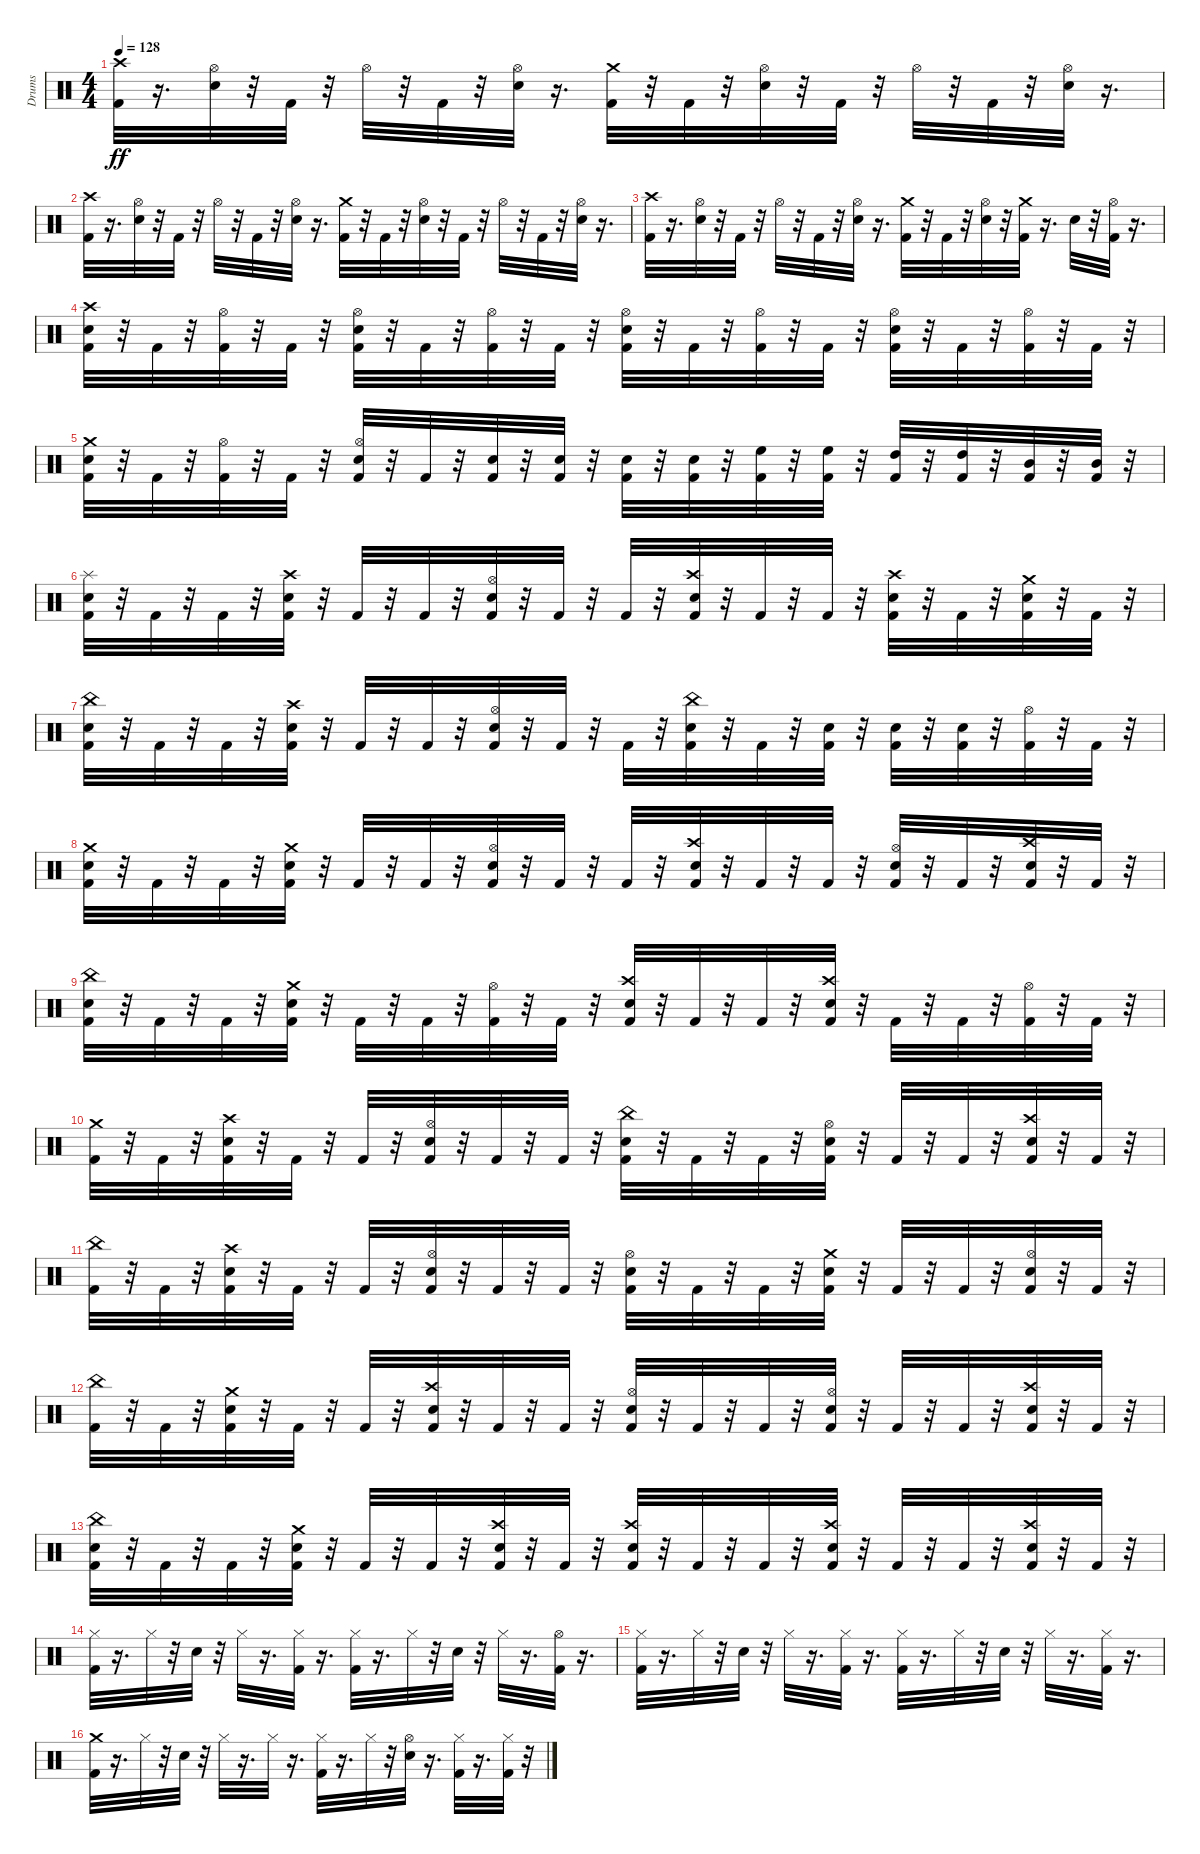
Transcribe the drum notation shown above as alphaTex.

\track ("Drums" "Drums") {instrument percussion}
\staff {score}
\articulation defaults
\ts (4 4)
\tempo 128
\clef neutral
\ks c
("Kick (hit) 2" "Crash high (hit)").32{dy ff} r.16{d} ("Hi-Hat (open)" "Snare (hit) 2").32 r.32 "Kick (hit) 2".32 r.32 "Hi-Hat (open)".32 r.32 "Kick (hit) 2".32 r.32 ("Hi-Hat (open)" "Snare (hit) 2").32 r.16{d} ("Crash medium (hit)" "Kick (hit) 2").32 r.32 "Kick (hit) 2".32 r.32 ("Hi-Hat (open)" "Snare (hit) 2").32 r.32 "Kick (hit) 2".32 r.32 "Hi-Hat (open)".32 r.32 "Kick (hit) 2".32 r.32 ("Hi-Hat (open)" "Snare (hit) 2").32 r.16{d} |
("Kick (hit) 2" "Crash high (hit)").32 r.16{d} ("Hi-Hat (open)" "Snare (hit) 2").32 r.32 "Kick (hit) 2".32 r.32 "Hi-Hat (open)".32 r.32 "Kick (hit) 2".32 r.32 ("Hi-Hat (open)" "Snare (hit) 2").32 r.16{d} ("Crash medium (hit)" "Kick (hit) 2").32 r.32 "Kick (hit) 2".32 r.32 ("Hi-Hat (open)" "Snare (hit) 2").32 r.32 "Kick (hit) 2".32 r.32 "Hi-Hat (open)".32 r.32 "Kick (hit) 2".32 r.32 ("Hi-Hat (open)" "Snare (hit) 2").32 r.16{d} |
("Kick (hit) 2" "Crash high (hit)").32 r.16{d} ("Hi-Hat (open)" "Snare (hit) 2").32 r.32 "Kick (hit) 2".32 r.32 "Hi-Hat (open)".32 r.32 "Kick (hit) 2".32 r.32 ("Hi-Hat (open)" "Snare (hit) 2").32 r.16{d} ("Crash medium (hit)" "Kick (hit) 2").32 r.32 "Kick (hit) 2".32 r.32 ("Hi-Hat (open)" "Snare (hit) 2").32 r.32 ("Kick (hit) 2" "Crash medium (hit)").32 r.16{d} "Snare (hit) 2".32 r.32 ("Hi-Hat (open)" "Kick (hit) 2").32 r.16{d} |
("Kick (hit) 2" "Crash high (hit)" "Snare (hit) 2").32 r.32 "Kick (hit) 2".32 r.32 ("Kick (hit) 2" "Hi-Hat (open)").32 r.32 "Kick (hit) 2".32 r.32 ("Kick (hit) 2" "Hi-Hat (open)" "Snare (hit) 2").32 r.32 "Kick (hit) 2".32 r.32 ("Kick (hit) 2" "Hi-Hat (open)").32 r.32 "Kick (hit) 2".32 r.32 ("Kick (hit) 2" "Hi-Hat (open)" "Snare (hit) 2").32 r.32 "Kick (hit) 2".32 r.32 ("Kick (hit) 2" "Hi-Hat (open)").32 r.32 "Kick (hit) 2".32 r.32 ("Snare (hit) 2" "Kick (hit) 2" "Hi-Hat (open)").32 r.32 "Kick (hit) 2".32 r.32 ("Kick (hit) 2" "Hi-Hat (open)").32 r.32 "Kick (hit) 2".32 r.32 |
("Kick (hit) 2" "Crash medium (hit)" "Snare (hit) 2").32 r.32 "Kick (hit) 2".32 r.32 ("Kick (hit) 2" "Hi-Hat (open)").32 r.32 "Kick (hit) 2".32 r.32 ("Kick (hit) 2" "Hi-Hat (open)" "Snare (hit) 2").32 r.32 "Kick (hit) 2".32 r.32 ("Kick (hit) 2" "Snare (hit) 2").32 r.32 ("Snare (hit) 2" "Kick (hit) 2").32 r.32 ("Kick (hit) 2" "Snare (hit) 2").32 r.32 ("Kick (hit) 2" "Snare (hit) 2").32 r.32 ("Kick (hit) 2" "High Floor Tom (hit)").32 r.32 ("Kick (hit) 2" "High Floor Tom (hit)").32 r.32 ("Kick (hit) 2" "High Tom (hit)").32 r.32 ("Kick (hit) 2" "High Tom (hit)").32 r.32 ("Kick (hit) 2" "Mid Tom (hit)").32 r.32 ("Kick (hit) 2" "Mid Tom (hit)").32 r.32 |
("Snare (hit) 2" "Splash (hit)" "Kick (hit) 2").32 r.32 "Kick (hit) 2".32 r.32 "Kick (hit) 2".32 r.32 ("Kick (hit) 2" "Snare (hit) 2" "Crash high (hit)").32 r.32 "Kick (hit) 2".32 r.32 "Kick (hit) 2".32 r.32 ("Kick (hit) 2" "Snare (hit) 2" "Hi-Hat (open)").32 r.32 "Kick (hit) 2".32 r.32 "Kick (hit) 2".32 r.32 ("Kick (hit) 2" "Snare (hit) 2" "Crash high (hit)").32 r.32 "Kick (hit) 2".32 r.32 "Kick (hit) 2".32 r.32 ("Kick (hit) 2" "Snare (hit) 2" "Crash high (hit)").32 r.32 "Kick (hit) 2".32 r.32 ("Crash medium (hit)" "Snare (hit) 2" "Kick (hit) 2").32 r.32 "Kick (hit) 2".32 r.32 |
("Snare (hit) 2" "China (hit)" "Kick (hit) 2").32 r.32 "Kick (hit) 2".32 r.32 "Kick (hit) 2".32 r.32 ("Kick (hit) 2" "Snare (hit) 2" "Crash high (hit)").32 r.32 "Kick (hit) 2".32 r.32 "Kick (hit) 2".32 r.32 ("Kick (hit) 2" "Snare (hit) 2" "Hi-Hat (open)").32 r.32 "Kick (hit) 2".32 r.32 "Kick (hit) 2".32 r.32 ("Kick (hit) 2" "Snare (hit) 2" "China (hit)").32 r.32 "Kick (hit) 2".32 r.32 ("Snare (hit) 2" "Kick (hit) 2").32 r.32 ("Kick (hit) 2" "Snare (hit) 2").32 r.32 ("Snare (hit) 2" "Kick (hit) 2").32 r.32 ("Hi-Hat (open)" "Kick (hit) 2").32 r.32 "Kick (hit) 2".32 r.32 |
("Kick (hit) 2" "Snare (hit) 2" "Crash medium (hit)").32 r.32 "Kick (hit) 2".32 r.32 "Kick (hit) 2".32 r.32 ("Kick (hit) 2" "Snare (hit) 2" "Crash medium (hit)").32 r.32 "Kick (hit) 2".32 r.32 "Kick (hit) 2".32 r.32 ("Kick (hit) 2" "Snare (hit) 2" "Hi-Hat (open)").32 r.32 "Kick (hit) 2".32 r.32 "Kick (hit) 2".32 r.32 ("Kick (hit) 2" "Snare (hit) 2" "Crash high (hit)").32 r.32 "Kick (hit) 2".32 r.32 "Kick (hit) 2".32 r.32 ("Kick (hit) 2" "Snare (hit) 2" "Hi-Hat (open)").32 r.32 "Kick (hit) 2".32 r.32 ("Crash high (hit)" "Snare (hit) 2" "Kick (hit) 2").32 r.32 "Kick (hit) 2".32 r.32 |
("China (hit)" "Snare (hit) 2" "Kick (hit) 2").32 r.32 "Kick (hit) 2".32 r.32 "Kick (hit) 2".32 r.32 ("Crash medium (hit)" "Snare (hit) 2" "Kick (hit) 2").32 r.32 "Kick (hit) 2".32 r.32 "Kick (hit) 2".32 r.32 ("Hi-Hat (open)" "Kick (hit) 2").32 r.32 "Kick (hit) 2".32 r.32 ("Crash high (hit)" "Snare (hit) 2" "Kick (hit) 2").32 r.32 "Kick (hit) 2".32 r.32 "Kick (hit) 2".32 r.32 ("Crash high (hit)" "Snare (hit) 2" "Kick (hit) 2").32 r.32 "Kick (hit) 2".32 r.32 "Kick (hit) 2".32 r.32 ("Hi-Hat (open)" "Kick (hit) 2").32 r.32 "Kick (hit) 2".32 r.32 |
("Crash medium (hit)" "Kick (hit) 2").32 r.32 "Kick (hit) 2".32 r.32 ("Snare (hit) 2" "Crash high (hit)" "Kick (hit) 2").32 r.32 "Kick (hit) 2".32 r.32 "Kick (hit) 2".32 r.32 ("Hi-Hat (open)" "Kick (hit) 2" "Snare (hit) 2").32 r.32 "Kick (hit) 2".32 r.32 "Kick (hit) 2".32 r.32 ("China (hit)" "Snare (hit) 2" "Kick (hit) 2").32 r.32 "Kick (hit) 2".32 r.32 "Kick (hit) 2".32 r.32 ("Hi-Hat (open)" "Snare (hit) 2" "Kick (hit) 2").32 r.32 "Kick (hit) 2".32 r.32 "Kick (hit) 2".32 r.32 ("Crash high (hit)" "Snare (hit) 2" "Kick (hit) 2").32 r.32 "Kick (hit) 2".32 r.32 |
("China (hit)" "Kick (hit) 2").32 r.32 "Kick (hit) 2".32 r.32 ("Snare (hit) 2" "Crash high (hit)" "Kick (hit) 2").32 r.32 "Kick (hit) 2".32 r.32 "Kick (hit) 2".32 r.32 ("Hi-Hat (open)" "Kick (hit) 2" "Snare (hit) 2").32 r.32 "Kick (hit) 2".32 r.32 "Kick (hit) 2".32 r.32 ("Hi-Hat (open)" "Snare (hit) 2" "Kick (hit) 2").32 r.32 "Kick (hit) 2".32 r.32 "Kick (hit) 2".32 r.32 ("Crash medium (hit)" "Snare (hit) 2" "Kick (hit) 2").32 r.32 "Kick (hit) 2".32 r.32 "Kick (hit) 2".32 r.32 ("Hi-Hat (open)" "Snare (hit) 2" "Kick (hit) 2").32 r.32 "Kick (hit) 2".32 r.32 |
("China (hit)" "Kick (hit) 2").32 r.32 "Kick (hit) 2".32 r.32 ("Snare (hit) 2" "Crash medium (hit)" "Kick (hit) 2").32 r.32 "Kick (hit) 2".32 r.32 "Kick (hit) 2".32 r.32 ("Crash high (hit)" "Kick (hit) 2" "Snare (hit) 2").32 r.32 "Kick (hit) 2".32 r.32 "Kick (hit) 2".32 r.32 ("Hi-Hat (open)" "Snare (hit) 2" "Kick (hit) 2").32 r.32 "Kick (hit) 2".32 r.32 "Kick (hit) 2".32 r.32 ("Hi-Hat (open)" "Snare (hit) 2" "Kick (hit) 2").32 r.32 "Kick (hit) 2".32 r.32 "Kick (hit) 2".32 r.32 ("Crash high (hit)" "Snare (hit) 2" "Kick (hit) 2").32 r.32 "Kick (hit) 2".32 r.32 |
("China (hit)" "Snare (hit) 2" "Kick (hit) 2").32 r.32 "Kick (hit) 2".32 r.32 "Kick (hit) 2".32 r.32 ("Crash medium (hit)" "Snare (hit) 2" "Kick (hit) 2").32 r.32 "Kick (hit) 2".32 r.32 "Kick (hit) 2".32 r.32 ("Crash high (hit)" "Snare (hit) 2" "Kick (hit) 2").32 r.32 "Kick (hit) 2".32 r.32 ("Crash high (hit)" "Snare (hit) 2" "Kick (hit) 2").32 r.32 "Kick (hit) 2".32 r.32 "Kick (hit) 2".32 r.32 ("Crash high (hit)" "Snare (hit) 2" "Kick (hit) 2").32 r.32 "Kick (hit) 2".32 r.32 "Kick (hit) 2".32 r.32 ("Crash high (hit)" "Snare (hit) 2" "Kick (hit) 2").32 r.32 "Kick (hit) 2".32 r.32 |
("Kick (hit) 2" "Hi-Hat (closed)").32 r.16{d} "Hi-Hat (closed)".32 r.32 "Snare (hit) 2".32 r.32 "Hi-Hat (closed)".32 r.16{d} ("Hi-Hat (closed)" "Kick (hit) 2").32 r.16{d} ("Hi-Hat (closed)" "Kick (hit) 2").32 r.16{d} "Hi-Hat (closed)".32 r.32 "Snare (hit) 2".32 r.32 "Hi-Hat (closed)".32 r.16{d} ("Kick (hit) 2" "Hi-Hat (open)").32 r.16{d} |
("Kick (hit) 2" "Hi-Hat (closed)").32 r.16{d} "Hi-Hat (closed)".32 r.32 "Snare (hit) 2".32 r.32 "Hi-Hat (closed)".32 r.16{d} ("Kick (hit) 2" "Hi-Hat (closed)").32 r.16{d} ("Kick (hit) 2" "Hi-Hat (closed)").32 r.16{d} "Hi-Hat (closed)".32 r.32 "Snare (hit) 2".32 r.32 "Hi-Hat (closed)".32 r.16{d} ("Hi-Hat (closed)" "Kick (hit) 2").32 r.16{d} |
("Kick (hit) 2" "Crash medium (hit)").32 r.16{d} "Hi-Hat (closed)".32 r.32 "Snare (hit) 2".32 r.32 "Hi-Hat (closed)".32 r.16{d} "Hi-Hat (closed)".32 r.16{d} ("Hi-Hat (closed)" "Kick (hit) 2").32 r.16{d} "Hi-Hat (closed)".32 r.32 ("Snare (hit) 2" "Hi-Hat (open)").32 r.16{d} ("Kick (hit) 2" "Hi-Hat (closed)").32 r.16{d} ("Hi-Hat (closed)" "Kick (hit) 2").32 r.32
